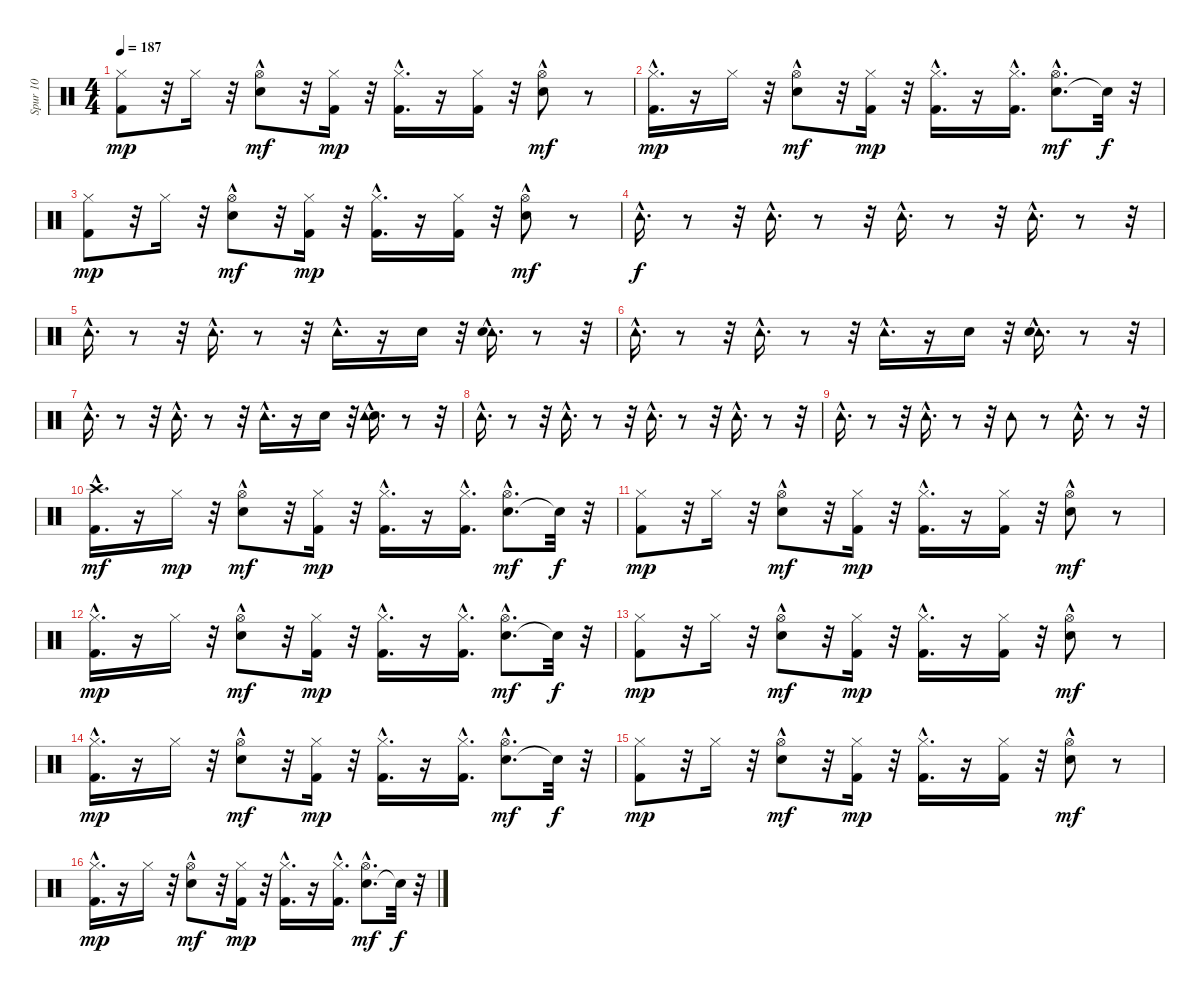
\track ("Spur 10" "Spur 10") {instrument percussion}
\staff {score}
\articulation defaults
\ts (4 4)
\tempo 187
\clef neutral
\ks c
("Kick (hit) 2" "Hi-Hat (closed)").8{dy mp} r.32 "Hi-Hat (closed)".16 r.32 ("Electric Snare (hit)"{hac} "Hi-Hat (open)").8{dy mf} r.32 ("Kick (hit) 2" "Hi-Hat (closed)").16{dy mp} r.32 ("Kick (hit) 2"{hac} "Hi-Hat (closed)").16{d} r.16 ("Kick (hit) 2" "Hi-Hat (closed)").16 r.32 ("Electric Snare (hit)"{hac} "Hi-Hat (open)").8{dy mf} r.8 |
("Kick (hit) 2"{hac} "Hi-Hat (closed)").16{d dy mp} r.16 "Hi-Hat (closed)".16 r.32 ("Electric Snare (hit)"{hac} "Hi-Hat (open)").8{dy mf} r.32 ("Kick (hit) 2" "Hi-Hat (closed)").16{dy mp} r.32 ("Kick (hit) 2"{hac} "Hi-Hat (closed)").16{d} r.16 ("Kick (hit) 2"{hac} "Hi-Hat (closed)").16{d} ("Electric Snare (hit)" "Hi-Hat (open)"{hac}).8{d dy mf} "Snare (hit)"{t}.32{dy f} r.32 |
("Kick (hit) 2" "Hi-Hat (closed)").8{dy mp} r.32 "Hi-Hat (closed)".16 r.32 ("Electric Snare (hit)"{hac} "Hi-Hat (open)").8{dy mf} r.32 ("Kick (hit) 2" "Hi-Hat (closed)").16{dy mp} r.32 ("Kick (hit) 2"{hac} "Hi-Hat (closed)").16{d} r.16 ("Kick (hit) 2" "Hi-Hat (closed)").16 r.32 ("Electric Snare (hit)"{hac} "Hi-Hat (open)").8{dy mf} r.8 |
"Tambourine (hit)"{hac}.16{d dy f} r.8 r.32 "Tambourine (hit)"{hac}.16{d} r.8 r.32 "Tambourine (hit)"{hac}.16{d} r.8 r.32 "Tambourine (hit)"{hac}.16{d} r.8 r.32 |
"Tambourine (hit)"{hac}.16{d} r.8 r.32 "Tambourine (hit)"{hac}.16{d} r.8 r.32 "Tambourine (hit)"{hac}.16{d} r.16 "Electric Snare (hit)".16 r.32 ("Tambourine (hit)"{hac} "Electric Snare (hit)").16{d} r.8 r.32 |
"Tambourine (hit)"{hac}.16{d} r.8 r.32 "Tambourine (hit)"{hac}.16{d} r.8 r.32 "Tambourine (hit)"{hac}.16{d} r.16 "Electric Snare (hit)".16 r.32 ("Tambourine (hit)"{hac} "Electric Snare (hit)").16{d} r.8 r.32 |
"Tambourine (hit)"{hac}.16{d} r.8 r.32 "Tambourine (hit)"{hac}.16{d} r.8 r.32 "Tambourine (hit)"{hac}.16{d} r.16 "Electric Snare (hit)".16 r.32 ("Electric Snare (hit)" "Tambourine (hit)"{hac}).16{d} r.8 r.32 |
"Tambourine (hit)"{hac}.16{d} r.8 r.32 "Tambourine (hit)"{hac}.16{d} r.8 r.32 "Tambourine (hit)"{hac}.16{d} r.8 r.32 "Tambourine (hit)"{hac}.16{d} r.8 r.32 |
"Tambourine (hit)"{hac}.16{d} r.8 r.32 "Tambourine (hit)"{hac}.16{d} r.8 r.32 "Tambourine (hit)".8 r.8 "Tambourine (hit)"{hac}.16{d} r.8 r.32 |
("Kick (hit) 2"{hac} "Crash high (hit)").16{d dy mf} r.16 "Hi-Hat (closed)".16{dy mp} r.32 ("Electric Snare (hit)"{hac} "Hi-Hat (open)").8{dy mf} r.32 ("Kick (hit) 2" "Hi-Hat (closed)").16{dy mp} r.32 ("Kick (hit) 2"{hac} "Hi-Hat (closed)").16{d} r.16 ("Kick (hit) 2"{hac} "Hi-Hat (closed)").16{d} ("Electric Snare (hit)" "Hi-Hat (open)"{hac}).8{d dy mf} "Snare (hit)"{t}.32{dy f} r.32 |
("Kick (hit) 2" "Hi-Hat (closed)").8{dy mp} r.32 "Hi-Hat (closed)".16 r.32 ("Electric Snare (hit)"{hac} "Hi-Hat (open)").8{dy mf} r.32 ("Kick (hit) 2" "Hi-Hat (closed)").16{dy mp} r.32 ("Kick (hit) 2"{hac} "Hi-Hat (closed)").16{d} r.16 ("Kick (hit) 2" "Hi-Hat (closed)").16 r.32 ("Electric Snare (hit)"{hac} "Hi-Hat (open)").8{dy mf} r.8 |
("Kick (hit) 2"{hac} "Hi-Hat (closed)").16{d dy mp} r.16 "Hi-Hat (closed)".16 r.32 ("Electric Snare (hit)"{hac} "Hi-Hat (open)").8{dy mf} r.32 ("Kick (hit) 2" "Hi-Hat (closed)").16{dy mp} r.32 ("Kick (hit) 2"{hac} "Hi-Hat (closed)").16{d} r.16 ("Kick (hit) 2"{hac} "Hi-Hat (closed)").16{d} ("Electric Snare (hit)" "Hi-Hat (open)"{hac}).8{d dy mf} "Snare (hit)"{t}.32{dy f} r.32 |
("Kick (hit) 2" "Hi-Hat (closed)").8{dy mp} r.32 "Hi-Hat (closed)".16 r.32 ("Electric Snare (hit)"{hac} "Hi-Hat (open)").8{dy mf} r.32 ("Kick (hit) 2" "Hi-Hat (closed)").16{dy mp} r.32 ("Kick (hit) 2"{hac} "Hi-Hat (closed)").16{d} r.16 ("Kick (hit) 2" "Hi-Hat (closed)").16 r.32 ("Electric Snare (hit)"{hac} "Hi-Hat (open)").8{dy mf} r.8 |
("Kick (hit) 2"{hac} "Hi-Hat (closed)").16{d dy mp} r.16 "Hi-Hat (closed)".16 r.32 ("Electric Snare (hit)"{hac} "Hi-Hat (open)").8{dy mf} r.32 ("Kick (hit) 2" "Hi-Hat (closed)").16{dy mp} r.32 ("Kick (hit) 2"{hac} "Hi-Hat (closed)").16{d} r.16 ("Kick (hit) 2"{hac} "Hi-Hat (closed)").16{d} ("Electric Snare (hit)" "Hi-Hat (open)"{hac}).8{d dy mf} "Snare (hit)"{t}.32{dy f} r.32 |
("Kick (hit) 2" "Hi-Hat (closed)").8{dy mp} r.32 "Hi-Hat (closed)".16 r.32 ("Electric Snare (hit)"{hac} "Hi-Hat (open)").8{dy mf} r.32 ("Kick (hit) 2" "Hi-Hat (closed)").16{dy mp} r.32 ("Kick (hit) 2"{hac} "Hi-Hat (closed)").16{d} r.16 ("Kick (hit) 2" "Hi-Hat (closed)").16 r.32 ("Electric Snare (hit)"{hac} "Hi-Hat (open)").8{dy mf} r.8 |
("Kick (hit) 2"{hac} "Hi-Hat (closed)").16{d dy mp} r.16 "Hi-Hat (closed)".16 r.32 ("Electric Snare (hit)"{hac} "Hi-Hat (open)").8{dy mf} r.32 ("Kick (hit) 2" "Hi-Hat (closed)").16{dy mp} r.32 ("Kick (hit) 2"{hac} "Hi-Hat (closed)").16{d} r.16 ("Kick (hit) 2"{hac} "Hi-Hat (closed)").16{d} ("Electric Snare (hit)" "Hi-Hat (open)"{hac}).8{d dy mf} "Snare (hit)"{t}.32{dy f} r.32
